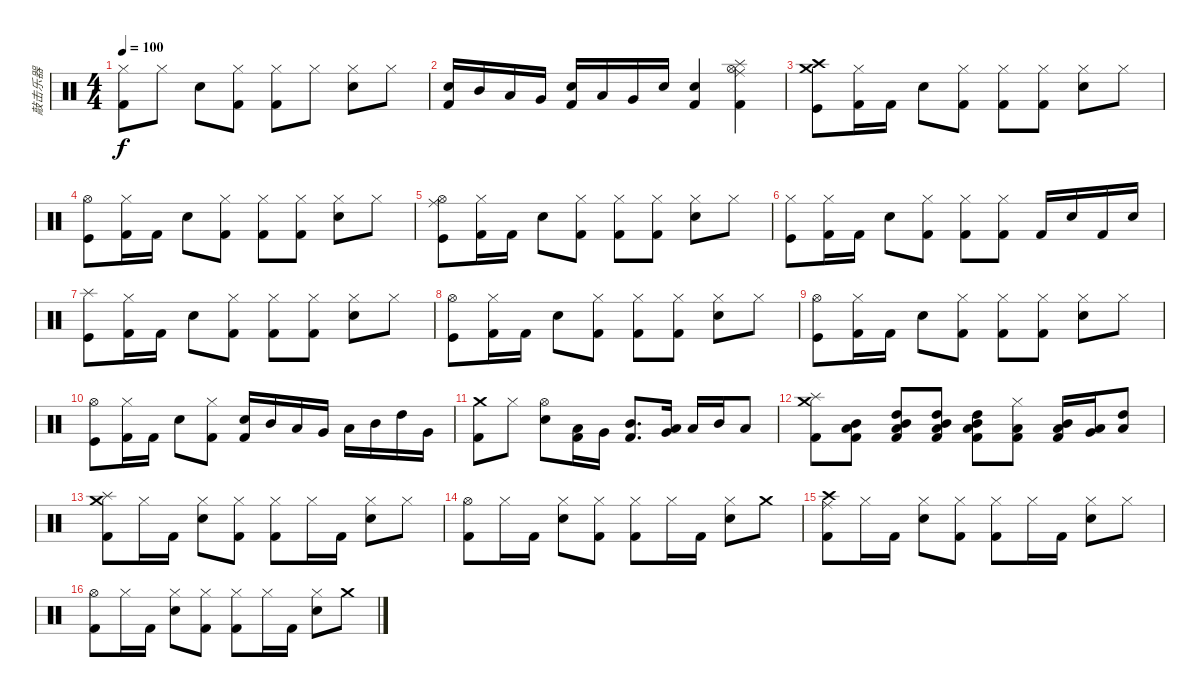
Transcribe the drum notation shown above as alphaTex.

\track ("敲击乐器" "敲击乐器") {instrument percussion}
\staff {score}
\articulation defaults
\ts (4 4)
\tempo 100
\clef neutral
\ks c
("Hi-Hat (closed)" "Kick (hit) 2").8{dy f} "Hi-Hat (closed)".8 "Electric Snare (hit)".8 ("Hi-Hat (closed)" "Kick (hit) 2").8 ("Hi-Hat (closed)" "Kick (hit) 2").8 "Hi-Hat (closed)".8 ("Hi-Hat (closed)" "Electric Snare (hit)").8 "Hi-Hat (closed)".8 |
("Electric Snare (hit)" "Kick (hit) 2").16 "Mid Tom (hit)".16 "Low Tom (hit)".16 "Very Low Tom (hit)".16 ("Electric Snare (hit)" "Kick (hit) 2").16 "Low Tom (hit)".16 "Very Low Tom (hit)".16 "Electric Snare (hit)".16 ("Electric Snare (hit)" "Kick (hit) 2").4 ("Splash (hit)" "Ride (middle)" "Hi-Hat (open)" "Kick (hit) 2").4 |
("Crash medium (hit)" "Crash high (hit)" "Kick (hit)").8 ("Hi-Hat (closed)" "Kick (hit) 2").16 "Kick (hit) 2".16 "Electric Snare (hit)".8 ("Hi-Hat (closed)" "Kick (hit) 2").8 ("Hi-Hat (closed)" "Kick (hit) 2").8 ("Hi-Hat (closed)" "Kick (hit) 2").8 ("Hi-Hat (closed)" "Electric Snare (hit)").8 "Hi-Hat (closed)".8 |
("Hi-Hat (open)" "Kick (hit)").8 ("Hi-Hat (closed)" "Kick (hit) 2").16 "Kick (hit) 2".16 "Electric Snare (hit)".8 ("Hi-Hat (closed)" "Kick (hit) 2").8 ("Hi-Hat (closed)" "Kick (hit) 2").8 ("Hi-Hat (closed)" "Kick (hit) 2").8 ("Hi-Hat (closed)" "Electric Snare (hit)").8 "Hi-Hat (closed)".8 |
("Ride (middle)" "Hi-Hat (open)" "Kick (hit)").8 ("Hi-Hat (closed)" "Kick (hit) 2").16 "Kick (hit) 2".16 "Electric Snare (hit)".8 ("Hi-Hat (closed)" "Kick (hit) 2").8 ("Hi-Hat (closed)" "Kick (hit) 2").8 ("Hi-Hat (closed)" "Kick (hit) 2").8 ("Hi-Hat (closed)" "Electric Snare (hit)").8 "Hi-Hat (closed)".8 |
("Hi-Hat (closed)" "Kick (hit)").8 ("Hi-Hat (closed)" "Kick (hit) 2").16 "Kick (hit) 2".16 "Electric Snare (hit)".8 ("Hi-Hat (closed)" "Kick (hit) 2").8 ("Hi-Hat (closed)" "Kick (hit) 2").8 ("Hi-Hat (closed)" "Kick (hit) 2").8 "Kick (hit) 2".16 "Electric Snare (hit)".16 "Kick (hit) 2".16 "Electric Snare (hit)".16 |
("Splash (hit)" "Kick (hit)").8 ("Hi-Hat (closed)" "Kick (hit) 2").16 "Kick (hit) 2".16 "Electric Snare (hit)".8 ("Hi-Hat (closed)" "Kick (hit) 2").8 ("Hi-Hat (closed)" "Kick (hit) 2").8 ("Hi-Hat (closed)" "Kick (hit) 2").8 ("Hi-Hat (closed)" "Electric Snare (hit)").8 "Hi-Hat (closed)".8 |
("Hi-Hat (open)" "Kick (hit)").8 ("Hi-Hat (closed)" "Kick (hit) 2").16 "Kick (hit) 2".16 "Electric Snare (hit)".8 ("Hi-Hat (closed)" "Kick (hit) 2").8 ("Hi-Hat (closed)" "Kick (hit) 2").8 ("Hi-Hat (closed)" "Kick (hit) 2").8 ("Hi-Hat (closed)" "Electric Snare (hit)").8 "Hi-Hat (closed)".8 |
("Hi-Hat (open)" "Kick (hit)").8 ("Hi-Hat (closed)" "Kick (hit) 2").16 "Kick (hit) 2".16 "Electric Snare (hit)".8 ("Hi-Hat (closed)" "Kick (hit) 2").8 ("Hi-Hat (closed)" "Kick (hit) 2").8 ("Hi-Hat (closed)" "Kick (hit) 2").8 ("Hi-Hat (closed)" "Electric Snare (hit)").8 "Hi-Hat (closed)".8 |
("Hi-Hat (open)" "Kick (hit)").8 ("Hi-Hat (closed)" "Kick (hit) 2").16 "Kick (hit) 2".16 "Electric Snare (hit)".8 ("Hi-Hat (closed)" "Kick (hit) 2").8 ("Electric Snare (hit)" "Kick (hit) 2").16 "Mid Tom (hit)".16 "Low Tom (hit)".16 "Very Low Tom (hit)".16 "Low Tom (hit)".16 "Mid Tom (hit)".16 "High Tom (hit)".16 "Very Low Tom (hit)".16 |
("Crash medium (hit)" "Kick (hit) 2").8 "Hi-Hat (closed)".8 ("Hi-Hat (open)" "Electric Snare (hit)").8 ("Low Tom (hit)" "Kick (hit) 2").16 "Very Low Tom (hit)".16 ("Mid Tom (hit)" "Kick (hit) 2").8{d} ("Very Low Tom (hit)" "Low Tom (hit)").16 "Low Tom (hit)".16 "Mid Tom (hit)".16 "Low Floor Tom (hit)".8 |
("Splash (hit)" "Crash medium (hit)" "Kick (hit) 2").8 ("Mid Tom (hit)" "Low Tom (hit)" "Kick (hit) 2").8 ("Mid Tom (hit)" "High Tom (hit)" "Low Tom (hit)" "Kick (hit) 2").8 ("Mid Tom (hit)" "High Tom (hit)" "Low Tom (hit)" "Kick (hit) 2").8 ("Mid Tom (hit)" "High Tom (hit)" "Low Tom (hit)" "Kick (hit) 2").8 ("Hi-Hat (closed)" "Low Tom (hit)" "Kick (hit) 2").8 ("Mid Tom (hit)" "Low Tom (hit)" "Kick (hit) 2").16 ("Low Tom (hit)" "Very Low Tom (hit)").16 ("High Tom (hit)" "Low Floor Tom (hit)").8 |
("Splash (hit)" "Crash medium (hit)" "Kick (hit) 2").8 "Hi-Hat (closed)".16 "Kick (hit) 2".16 ("Hi-Hat (closed)" "Electric Snare (hit)").8 ("Hi-Hat (closed)" "Kick (hit) 2").8 ("Hi-Hat (closed)" "Kick (hit) 2").8 "Hi-Hat (closed)".16 "Kick (hit) 2".16 ("Hi-Hat (closed)" "Electric Snare (hit)").8 "Hi-Hat (closed)".8 |
("Hi-Hat (open)" "Kick (hit) 2").8 "Hi-Hat (closed)".16 "Kick (hit) 2".16 ("Hi-Hat (closed)" "Electric Snare (hit)").8 ("Hi-Hat (closed)" "Kick (hit) 2").8 ("Hi-Hat (closed)" "Kick (hit) 2").8 "Hi-Hat (closed)".16 "Kick (hit) 2".16 ("Hi-Hat (closed)" "Electric Snare (hit)").8 "Crash medium (hit)".8 |
("Ride (middle)" "Crash high (hit)" "Kick (hit) 2").8 "Hi-Hat (closed)".16 "Kick (hit) 2".16 ("Hi-Hat (closed)" "Electric Snare (hit)").8 ("Hi-Hat (closed)" "Kick (hit) 2").8 ("Hi-Hat (closed)" "Kick (hit) 2").8 "Hi-Hat (closed)".16 "Kick (hit) 2".16 ("Hi-Hat (closed)" "Electric Snare (hit)").8 "Hi-Hat (closed)".8 |
("Hi-Hat (open)" "Kick (hit) 2").8 "Hi-Hat (closed)".16 "Kick (hit) 2".16 ("Hi-Hat (closed)" "Electric Snare (hit)").8 ("Hi-Hat (closed)" "Kick (hit) 2").8 ("Hi-Hat (closed)" "Kick (hit) 2").8 "Hi-Hat (closed)".16 "Kick (hit) 2".16 ("Hi-Hat (closed)" "Electric Snare (hit)").8 "Crash medium (hit)".8
